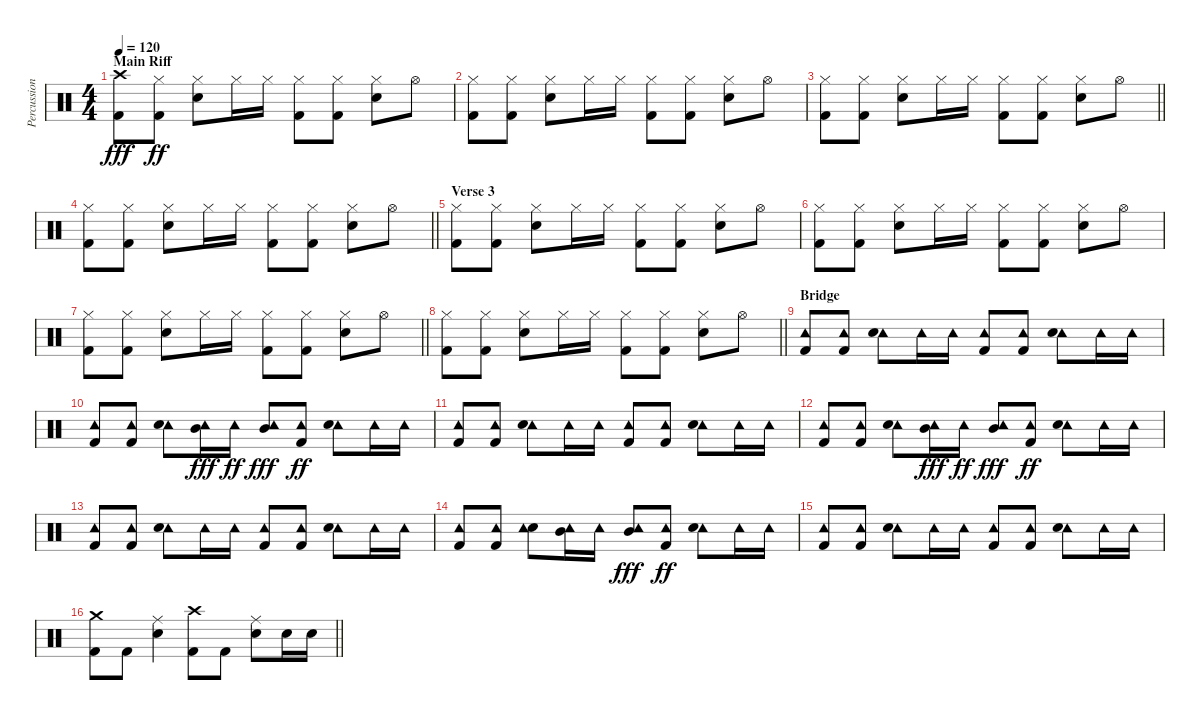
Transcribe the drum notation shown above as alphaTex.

\track ("Percussion" "Percussion") {instrument percussion}
\staff {score}
\articulation defaults
\ts (4 4)
\section ("" "Main Riff")
\tempo 120
\clef neutral
\ks c
("Kick (hit) 2" "Crash high (hit)").8{dy fff} ("Kick (hit) 2" "Hi-Hat (closed)").8{dy ff} ("Snare (hit) 2" "Hi-Hat (closed)").8 "Hi-Hat (closed)".16 "Hi-Hat (closed)".16 ("Kick (hit) 2" "Hi-Hat (closed)").8 ("Hi-Hat (closed)" "Kick (hit) 2").8 ("Hi-Hat (closed)" "Snare (hit) 2").8 "Hi-Hat (open)".8 |
("Hi-Hat (closed)" "Kick (hit) 2").8 ("Kick (hit) 2" "Hi-Hat (closed)").8 ("Snare (hit) 2" "Hi-Hat (closed)").8 "Hi-Hat (closed)".16 "Hi-Hat (closed)".16 ("Kick (hit) 2" "Hi-Hat (closed)").8 ("Hi-Hat (closed)" "Kick (hit) 2").8 ("Hi-Hat (closed)" "Snare (hit) 2").8 "Hi-Hat (open)".8 |
\barLineRight lightlight
("Hi-Hat (closed)" "Kick (hit) 2").8 ("Kick (hit) 2" "Hi-Hat (closed)").8 ("Snare (hit) 2" "Hi-Hat (closed)").8 "Hi-Hat (closed)".16 "Hi-Hat (closed)".16 ("Kick (hit) 2" "Hi-Hat (closed)").8 ("Hi-Hat (closed)" "Kick (hit) 2").8 ("Hi-Hat (closed)" "Snare (hit) 2").8 "Hi-Hat (open)".8 |
\barLineRight lightlight
("Hi-Hat (closed)" "Kick (hit) 2").8 ("Hi-Hat (closed)" "Kick (hit) 2").8 ("Hi-Hat (closed)" "Snare (hit) 2").8 "Hi-Hat (closed)".16 "Hi-Hat (closed)".16 ("Hi-Hat (closed)" "Kick (hit) 2").8 ("Hi-Hat (closed)" "Kick (hit) 2").8 ("Hi-Hat (closed)" "Snare (hit) 2").8 "Hi-Hat (open)".8 |
\section ("" "Verse 3")
("Hi-Hat (closed)" "Kick (hit) 2").8 ("Hi-Hat (closed)" "Kick (hit) 2").8 ("Snare (hit) 2" "Hi-Hat (closed)").8 "Hi-Hat (closed)".16 "Hi-Hat (closed)".16 ("Kick (hit) 2" "Hi-Hat (closed)").8 ("Hi-Hat (closed)" "Kick (hit) 2").8 ("Hi-Hat (closed)" "Snare (hit) 2").8 "Hi-Hat (open)".8 |
("Hi-Hat (closed)" "Kick (hit) 2").8 ("Hi-Hat (closed)" "Kick (hit) 2").8 ("Hi-Hat (closed)" "Snare (hit) 2").8 "Hi-Hat (closed)".16 "Hi-Hat (closed)".16 ("Hi-Hat (closed)" "Kick (hit) 2").8 ("Kick (hit) 2" "Hi-Hat (closed)").8 ("Hi-Hat (closed)" "Snare (hit) 2").8 "Hi-Hat (open)".8 |
\barLineRight lightlight
("Hi-Hat (closed)" "Kick (hit) 2").8 ("Hi-Hat (closed)" "Kick (hit) 2").8 ("Hi-Hat (closed)" "Snare (hit) 2").8 "Hi-Hat (closed)".16 "Hi-Hat (closed)".16 ("Kick (hit) 2" "Hi-Hat (closed)").8 ("Kick (hit) 2" "Hi-Hat (closed)").8 ("Snare (hit) 2" "Hi-Hat (closed)").8 "Hi-Hat (open)".8 |
\barLineRight lightlight
("Kick (hit) 2" "Hi-Hat (closed)").8 ("Hi-Hat (closed)" "Kick (hit) 2").8 ("Snare (hit) 2" "Hi-Hat (closed)").8 "Hi-Hat (closed)".16 "Hi-Hat (closed)".16 ("Hi-Hat (closed)" "Kick (hit) 2").8 ("Hi-Hat (closed)" "Kick (hit) 2").8 ("Hi-Hat (closed)" "Snare (hit) 2").8 "Hi-Hat (open)".8 |
\section ("" "Bridge")
("Tambourine (hit)" "Kick (hit) 2").8 ("Tambourine (hit)" "Kick (hit) 2").8 ("Tambourine (hit)" "Snare (hit) 2").8 "Tambourine (hit)".16 "Tambourine (hit)".16 ("Tambourine (hit)" "Kick (hit) 2").8 ("Tambourine (hit)" "Kick (hit) 2").8 ("Tambourine (hit)" "Snare (hit) 2").8 "Tambourine (hit)".16 "Tambourine (hit)".16 |
("Tambourine (hit)" "Kick (hit) 2").8 ("Tambourine (hit)" "Kick (hit) 2").8 ("Tambourine (hit)" "Snare (hit) 2").8 ("Tambourine (hit)" "Mid Tom (hit)").16{dy fff} "Tambourine (hit)".16{dy ff} ("Tambourine (hit)" "Mid Tom (hit)").8{dy fff} ("Tambourine (hit)" "Kick (hit) 2").8{dy ff} ("Tambourine (hit)" "Snare (hit) 2").8 "Tambourine (hit)".16 "Tambourine (hit)".16 |
("Tambourine (hit)" "Kick (hit) 2").8 ("Tambourine (hit)" "Kick (hit) 2").8 ("Tambourine (hit)" "Snare (hit) 2").8 "Tambourine (hit)".16 "Tambourine (hit)".16 ("Tambourine (hit)" "Kick (hit) 2").8 ("Tambourine (hit)" "Kick (hit) 2").8 ("Tambourine (hit)" "Snare (hit) 2").8 "Tambourine (hit)".16 "Tambourine (hit)".16 |
("Kick (hit) 2" "Tambourine (hit)").8 ("Kick (hit) 2" "Tambourine (hit)").8 ("Tambourine (hit)" "Snare (hit) 2").8 ("Tambourine (hit)" "Mid Tom (hit)").16{dy fff} "Tambourine (hit)".16{dy ff} ("Tambourine (hit)" "Mid Tom (hit)").8{dy fff} ("Tambourine (hit)" "Kick (hit) 2").8{dy ff} ("Tambourine (hit)" "Snare (hit) 2").8 "Tambourine (hit)".16 "Tambourine (hit)".16 |
("Kick (hit) 2" "Tambourine (hit)").8 ("Kick (hit) 2" "Tambourine (hit)").8 ("Tambourine (hit)" "Snare (hit) 2").8 "Tambourine (hit)".16 "Tambourine (hit)".16 ("Tambourine (hit)" "Kick (hit) 2").8 ("Kick (hit) 2" "Tambourine (hit)").8 ("Tambourine (hit)" "Snare (hit) 2").8 "Tambourine (hit)".16 "Tambourine (hit)".16 |
("Kick (hit) 2" "Tambourine (hit)").8 ("Kick (hit) 2" "Tambourine (hit)").8 ("Snare (hit) 2" "Tambourine (hit)").8 ("Mid Tom (hit)" "Tambourine (hit)").16 "Tambourine (hit)".16 ("Tambourine (hit)" "Mid Tom (hit)").8{dy fff} ("Tambourine (hit)" "Kick (hit) 2").8{dy ff} ("Tambourine (hit)" "Snare (hit) 2").8 "Tambourine (hit)".16 "Tambourine (hit)".16 |
("Tambourine (hit)" "Kick (hit) 2").8 ("Tambourine (hit)" "Kick (hit) 2").8 ("Tambourine (hit)" "Snare (hit) 2").8 "Tambourine (hit)".16 "Tambourine (hit)".16 ("Tambourine (hit)" "Kick (hit) 2").8 ("Tambourine (hit)" "Kick (hit) 2").8 ("Tambourine (hit)" "Snare (hit) 2").8 "Tambourine (hit)".16 "Tambourine (hit)".16 |
\barLineRight lightlight
("Crash medium (hit)" "Kick (hit) 2").8 "Kick (hit) 2".8 ("Ride (middle)" "Snare (hit) 2").4 ("Crash high (hit)" "Kick (hit) 2").8 "Kick (hit) 2".8 ("Ride (middle)" "Snare (hit) 2").8 "Snare (hit) 2".16 "Snare (hit) 2".16
